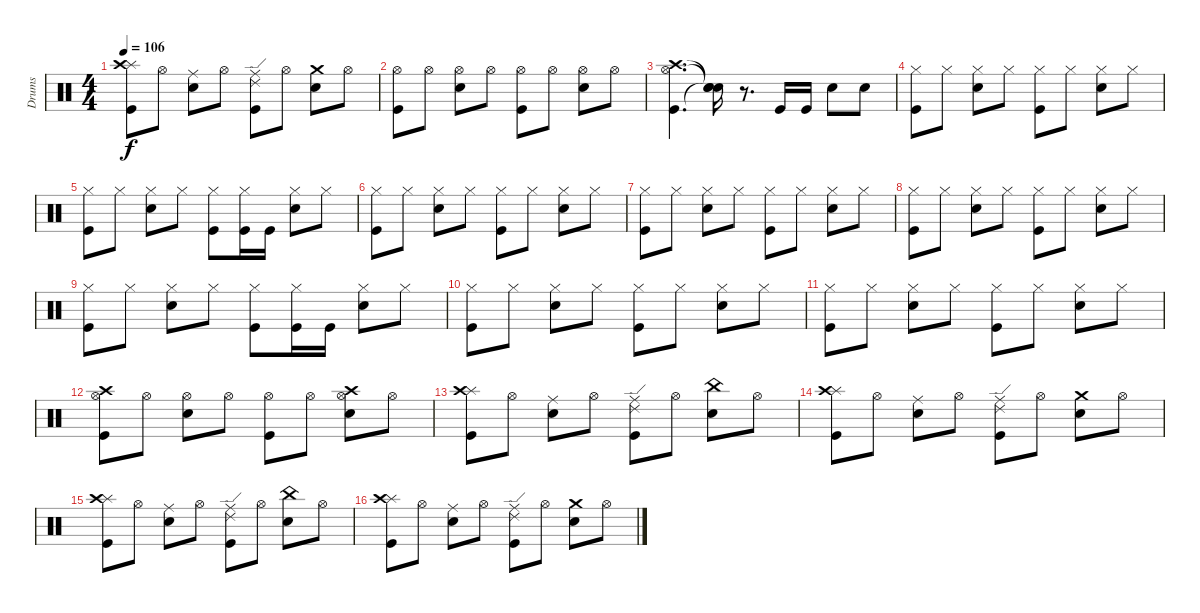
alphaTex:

\track ("Drums" "Drums") {instrument percussion}
\staff {score}
\articulation defaults
\ts (4 4)
\tempo 106
\clef neutral
\ks c
("Kick (hit)" "Splash (hit)" "Crash high (hit)").8{dy f volume 12} "Hi-Hat (open)".8 ("Snare (hit) 2" "Ride (middle)").8 "Hi-Hat (open)".8 ("Kick (hit)" "Ride (middle)" "Ride (edge) 2").8 "Hi-Hat (open)".8 ("Snare (hit) 2" "Crash medium (hit)").8 "Hi-Hat (open)".8 |
("Kick (hit)" "Hi-Hat (open)").8{volume 12} "Hi-Hat (open)".8 ("Snare (hit) 2" "Hi-Hat (open)").8 "Hi-Hat (open)".8 ("Kick (hit)" "Hi-Hat (open)").8 "Hi-Hat (open)".8 ("Snare (hit) 2" "Hi-Hat (open)").8 "Hi-Hat (open)".8 |
("Kick (hit)" "Hi-Hat (open)" "Crash high (hit)").4{d} ("Snare (hit)"{t} "Snare (hit)"{t} "Snare (hit)"{t}).16 r.8{d} "Kick (hit)".16 "Kick (hit)".16 "Snare (hit) 2".8 "Snare (hit) 2".8 |
("Kick (hit)" "Hi-Hat (closed)").8{volume 12} "Hi-Hat (closed)".8 ("Snare (hit) 2" "Hi-Hat (closed)").8 "Hi-Hat (closed)".8 ("Kick (hit)" "Hi-Hat (closed)").8 "Hi-Hat (closed)".8 ("Snare (hit) 2" "Hi-Hat (closed)").8 "Hi-Hat (closed)".8 |
("Kick (hit)" "Hi-Hat (closed)").8{volume 12} "Hi-Hat (closed)".8 ("Snare (hit) 2" "Hi-Hat (closed)").8 "Hi-Hat (closed)".8 ("Kick (hit)" "Hi-Hat (closed)").8 ("Kick (hit)" "Hi-Hat (closed)").16 "Kick (hit)".16 ("Snare (hit) 2" "Hi-Hat (closed)").8 "Hi-Hat (closed)".8 |
("Kick (hit)" "Hi-Hat (closed)").8{volume 12} "Hi-Hat (closed)".8 ("Snare (hit) 2" "Hi-Hat (closed)").8 "Hi-Hat (closed)".8 ("Kick (hit)" "Hi-Hat (closed)").8 "Hi-Hat (closed)".8 ("Snare (hit) 2" "Hi-Hat (closed)").8 "Hi-Hat (closed)".8 |
("Kick (hit)" "Hi-Hat (closed)").8{volume 12} "Hi-Hat (closed)".8 ("Snare (hit) 2" "Hi-Hat (closed)").8 "Hi-Hat (closed)".8 ("Kick (hit)" "Hi-Hat (closed)").8 "Hi-Hat (closed)".8 ("Snare (hit) 2" "Hi-Hat (closed)").8 "Hi-Hat (closed)".8 |
("Kick (hit)" "Hi-Hat (closed)").8{volume 12} "Hi-Hat (closed)".8 ("Snare (hit) 2" "Hi-Hat (closed)").8 "Hi-Hat (closed)".8 ("Kick (hit)" "Hi-Hat (closed)").8 "Hi-Hat (closed)".8 ("Snare (hit) 2" "Hi-Hat (closed)").8 "Hi-Hat (closed)".8 |
("Kick (hit)" "Hi-Hat (closed)").8{volume 12} "Hi-Hat (closed)".8 ("Snare (hit) 2" "Hi-Hat (closed)").8 "Hi-Hat (closed)".8 ("Kick (hit)" "Hi-Hat (closed)").8 ("Kick (hit)" "Hi-Hat (closed)").16 "Kick (hit)".16 ("Snare (hit) 2" "Hi-Hat (closed)").8 "Hi-Hat (closed)".8 |
("Kick (hit)" "Hi-Hat (closed)").8{volume 12} "Hi-Hat (closed)".8 ("Snare (hit) 2" "Hi-Hat (closed)").8 "Hi-Hat (closed)".8 ("Kick (hit)" "Hi-Hat (closed)").8 "Hi-Hat (closed)".8 ("Snare (hit) 2" "Hi-Hat (closed)").8 "Hi-Hat (closed)".8 |
("Kick (hit)" "Hi-Hat (closed)").8{volume 12} "Hi-Hat (closed)".8 ("Snare (hit) 2" "Hi-Hat (closed)").8 "Hi-Hat (closed)".8 ("Kick (hit)" "Hi-Hat (closed)").8 "Hi-Hat (closed)".8 ("Snare (hit) 2" "Hi-Hat (closed)").8 "Hi-Hat (closed)".8 |
("Crash high (hit)" "Kick (hit)" "Hi-Hat (open)").8{volume 12} "Hi-Hat (open)".8 ("Snare (hit) 2" "Hi-Hat (open)").8 "Hi-Hat (open)".8 ("Kick (hit)" "Hi-Hat (open)").8 "Hi-Hat (open)".8 ("Snare (hit) 2" "Hi-Hat (open)" "Crash high (hit)").8 "Hi-Hat (open)".8 |
("Kick (hit)" "Splash (hit)" "Crash high (hit)").8{volume 12} "Hi-Hat (open)".8 ("Snare (hit) 2" "Ride (middle)").8 "Hi-Hat (open)".8 ("Kick (hit)" "Ride (middle)" "Ride (edge) 2").8 "Hi-Hat (open)".8 ("Snare (hit) 2" "China (hit)").8 "Hi-Hat (open)".8 |
("Kick (hit)" "Splash (hit)" "Crash high (hit)").8{volume 12} "Hi-Hat (open)".8 ("Snare (hit) 2" "Ride (middle)").8 "Hi-Hat (open)".8 ("Kick (hit)" "Ride (middle)" "Ride (edge) 2").8 "Hi-Hat (open)".8 ("Snare (hit) 2" "Crash medium (hit)").8 "Hi-Hat (open)".8 |
("Kick (hit)" "Splash (hit)" "Crash high (hit)").8{volume 12} "Hi-Hat (open)".8 ("Snare (hit) 2" "Ride (middle)").8 "Hi-Hat (open)".8 ("Kick (hit)" "Ride (middle)" "Ride (edge) 2").8 "Hi-Hat (open)".8 ("Snare (hit) 2" "China (hit)").8 "Hi-Hat (open)".8 |
("Kick (hit)" "Splash (hit)" "Crash high (hit)").8{volume 12} "Hi-Hat (open)".8 ("Snare (hit) 2" "Ride (middle)").8 "Hi-Hat (open)".8 ("Kick (hit)" "Ride (middle)" "Ride (edge) 2").8 "Hi-Hat (open)".8 ("Snare (hit) 2" "Crash medium (hit)").8 "Hi-Hat (open)".8
